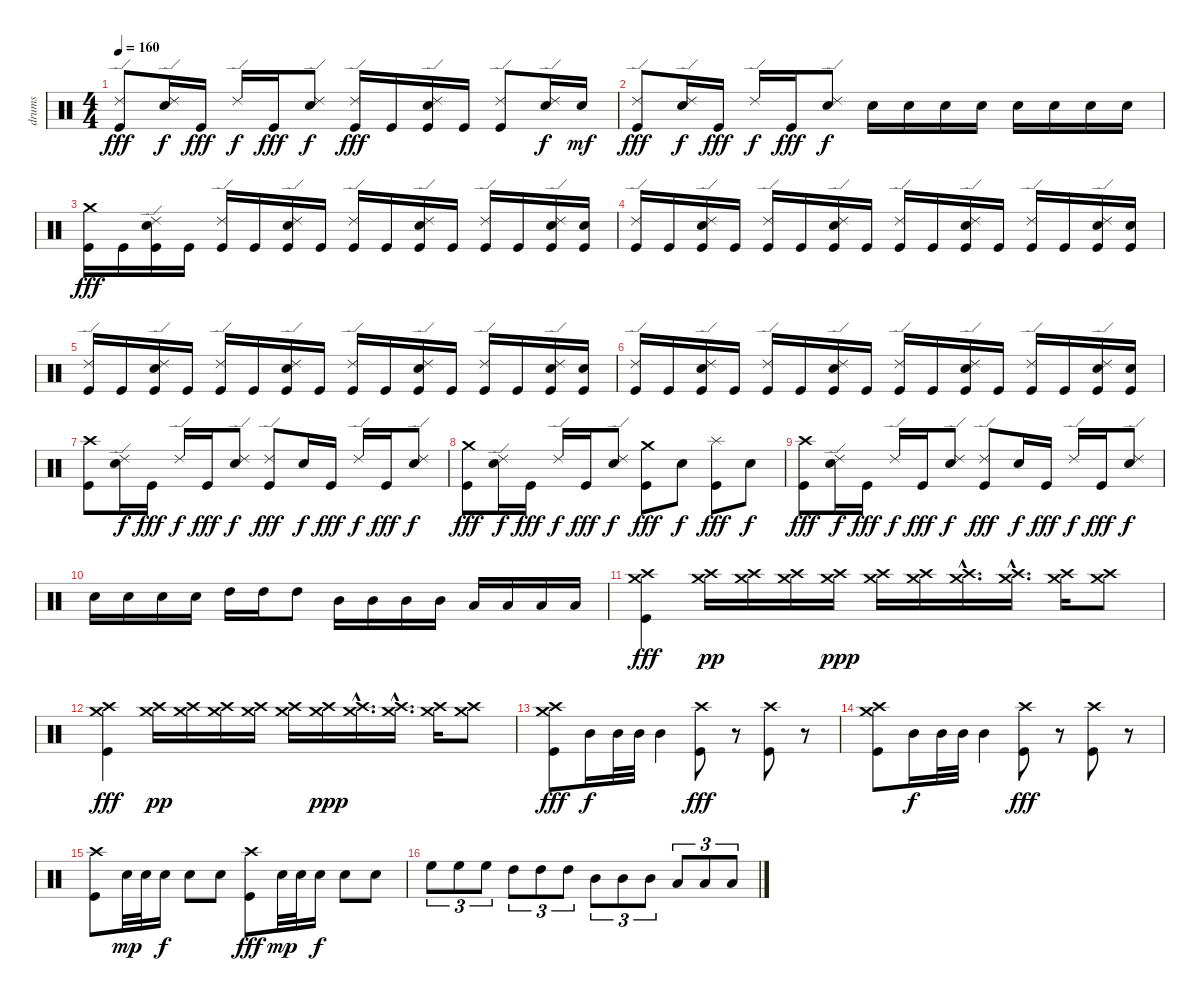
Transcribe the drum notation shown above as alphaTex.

\track ("drums" "drums") {instrument percussion}
\staff {score}
\articulation defaults
\ts (4 4)
\tempo 160
\clef neutral
\ks c
("Ride (edge) 2" "Kick (hit)").8{dy fff} ("Ride (edge) 2" "Snare (hit) 2").16{dy f} "Kick (hit)".16{dy fff} "Ride (edge) 2".16{dy f} "Kick (hit)".16{dy fff} ("Ride (edge) 2" "Snare (hit) 2").8{dy f} ("Ride (edge) 2" "Kick (hit)").16{dy fff} "Kick (hit)".16 ("Ride (edge) 2" "Snare (hit) 2" "Kick (hit)").16 "Kick (hit)".16 ("Ride (edge) 2" "Kick (hit)").8 ("Ride (edge) 2" "Snare (hit) 2").16{dy f} "Snare (hit) 2".16{dy mf} |
("Ride (edge) 2" "Kick (hit)").8{dy fff} ("Ride (edge) 2" "Snare (hit) 2").16{dy f} "Kick (hit)".16{dy fff} "Ride (edge) 2".16{dy f} "Kick (hit)".16{dy fff} ("Ride (edge) 2" "Snare (hit) 2").8{dy f} "Snare (hit) 2".16 "Snare (hit) 2".16 "Snare (hit) 2".16 "Snare (hit) 2".16 "Snare (hit) 2".16 "Snare (hit) 2".16 "Snare (hit) 2".16 "Snare (hit) 2".16 |
("Crash medium (hit)" "Kick (hit)").16{dy fff} "Kick (hit)".16 ("Ride (edge) 2" "Snare (hit) 2" "Kick (hit)").16 "Kick (hit)".16 ("Ride (edge) 2" "Kick (hit)").16 "Kick (hit)".16 ("Ride (edge) 2" "Snare (hit) 2" "Kick (hit)").16 "Kick (hit)".16 ("Ride (edge) 2" "Kick (hit)").16 "Kick (hit)".16 ("Ride (edge) 2" "Snare (hit) 2" "Kick (hit)").16 "Kick (hit)".16 ("Ride (edge) 2" "Kick (hit)").16 "Kick (hit)".16 ("Ride (edge) 2" "Snare (hit) 2" "Kick (hit)").16 ("Snare (hit) 2" "Kick (hit)").16 |
("Ride (edge) 2" "Kick (hit)").16 "Kick (hit)".16 ("Ride (edge) 2" "Snare (hit) 2" "Kick (hit)").16 "Kick (hit)".16 ("Ride (edge) 2" "Kick (hit)").16 "Kick (hit)".16 ("Ride (edge) 2" "Snare (hit) 2" "Kick (hit)").16 "Kick (hit)".16 ("Ride (edge) 2" "Kick (hit)").16 "Kick (hit)".16 ("Ride (edge) 2" "Snare (hit) 2" "Kick (hit)").16 "Kick (hit)".16 ("Ride (edge) 2" "Kick (hit)").16 "Kick (hit)".16 ("Ride (edge) 2" "Snare (hit) 2" "Kick (hit)").16 ("Snare (hit) 2" "Kick (hit)").16 |
("Ride (edge) 2" "Kick (hit)").16 "Kick (hit)".16 ("Ride (edge) 2" "Snare (hit) 2" "Kick (hit)").16 "Kick (hit)".16 ("Ride (edge) 2" "Kick (hit)").16 "Kick (hit)".16 ("Ride (edge) 2" "Snare (hit) 2" "Kick (hit)").16 "Kick (hit)".16 ("Ride (edge) 2" "Kick (hit)").16 "Kick (hit)".16 ("Ride (edge) 2" "Snare (hit) 2" "Kick (hit)").16 "Kick (hit)".16 ("Ride (edge) 2" "Kick (hit)").16 "Kick (hit)".16 ("Ride (edge) 2" "Snare (hit) 2" "Kick (hit)").16 ("Snare (hit) 2" "Kick (hit)").16 |
("Ride (edge) 2" "Kick (hit)").16 "Kick (hit)".16 ("Ride (edge) 2" "Snare (hit) 2" "Kick (hit)").16 "Kick (hit)".16 ("Ride (edge) 2" "Kick (hit)").16 "Kick (hit)".16 ("Ride (edge) 2" "Snare (hit) 2" "Kick (hit)").16 "Kick (hit)".16 ("Ride (edge) 2" "Kick (hit)").16 "Kick (hit)".16 ("Ride (edge) 2" "Snare (hit) 2" "Kick (hit)").16 "Kick (hit)".16 ("Ride (edge) 2" "Kick (hit)").16 "Kick (hit)".16 ("Ride (edge) 2" "Snare (hit) 2" "Kick (hit)").16 ("Kick (hit)" "Snare (hit)").16 |
("Crash high (hit)" "Kick (hit)").8 ("Ride (edge) 2" "Snare (hit) 2").16{dy f} "Kick (hit)".16{dy fff} "Ride (edge) 2".16{dy f} "Kick (hit)".16{dy fff} ("Ride (edge) 2" "Snare (hit) 2").8{dy f} ("Ride (edge) 2" "Kick (hit)").8{dy fff} "Snare (hit) 2".16{dy f} "Kick (hit)".16{dy fff} "Ride (edge) 2".16{dy f} "Kick (hit)".16{dy fff} ("Ride (edge) 2" "Snare (hit) 2").8{dy f} |
("Crash medium (hit)" "Kick (hit)").8{dy fff} ("Ride (edge) 2" "Snare (hit) 2").16{dy f} "Kick (hit)".16{dy fff} "Ride (edge) 2".16{dy f} "Kick (hit)".16{dy fff} ("Ride (edge) 2" "Snare (hit) 2").8{dy f} ("Crash medium (hit)" "Kick (hit)").8{dy fff} "Snare (hit) 2".8{dy f} ("Splash (hit)" "Kick (hit)").8{dy fff} "Snare (hit) 2".8{dy f} |
("Crash high (hit)" "Kick (hit)").8{dy fff} ("Ride (edge) 2" "Snare (hit) 2").16{dy f} "Kick (hit)".16{dy fff} "Ride (edge) 2".16{dy f} "Kick (hit)".16{dy fff} ("Ride (edge) 2" "Snare (hit) 2").8{dy f} ("Ride (edge) 2" "Kick (hit)").8{dy fff} "Snare (hit) 2".16{dy f} "Kick (hit)".16{dy fff} "Ride (edge) 2".16{dy f} "Kick (hit)".16{dy fff} ("Ride (edge) 2" "Snare (hit) 2").8{dy f} |
"Snare (hit) 2".16 "Snare (hit) 2".16 "Snare (hit) 2".16 "Snare (hit) 2".16 "High Tom (hit)".16 "High Tom (hit)".16 "High Tom (hit)".8 "Mid Tom (hit)".16 "Mid Tom (hit)".16 "Mid Tom (hit)".16 "Mid Tom (hit)".16 "Low Tom (hit)".16 "Low Tom (hit)".16 "Low Tom (hit)".16 "Low Tom (hit)".16 |
("Crash high (hit)" "Crash medium (hit)" "Kick (hit)").4{dy fff} ("Crash medium (hit)" "Crash high (hit)").16{dy pp} ("Crash medium (hit)" "Crash high (hit)").16 ("Crash medium (hit)" "Crash high (hit)").16 ("Crash medium (hit)" "Crash high (hit)").16{dy ppp} ("Crash medium (hit)" "Crash high (hit)").16 ("Crash medium (hit)" "Crash high (hit)").16 ("Crash medium (hit)"{hac} "Crash high (hit)"{hac}).16{d} ("Crash medium (hit)"{hac} "Crash high (hit)"{hac}).16{d} ("Crash medium (hit)" "Crash high (hit)").16 ("Crash medium (hit)" "Crash high (hit)").8 |
("Crash high (hit)" "Crash medium (hit)" "Kick (hit)").4{dy fff} ("Crash medium (hit)" "Crash high (hit)").16{dy pp} ("Crash medium (hit)" "Crash high (hit)").16 ("Crash medium (hit)" "Crash high (hit)").16 ("Crash medium (hit)" "Crash high (hit)").16 ("Crash medium (hit)" "Crash high (hit)").16 ("Crash medium (hit)" "Crash high (hit)").16{dy ppp} ("Crash medium (hit)"{hac} "Crash high (hit)"{hac}).16{d} ("Crash medium (hit)"{hac} "Crash high (hit)"{hac}).16{d} ("Crash medium (hit)" "Crash high (hit)").16 ("Crash medium (hit)" "Crash high (hit)").8 |
("Crash medium (hit)" "Crash high (hit)" "Kick (hit)").8{dy fff} "Mid Tom (hit)".16{dy f} "Mid Tom (hit)".32 "Mid Tom (hit)".32 "Mid Tom (hit)".4 ("Crash high (hit)" "Kick (hit)").8{dy fff} r.8{volume 0} ("Crash high (hit)" "Kick (hit)").8{volume 12} r.8{volume 0} |
("Crash medium (hit)" "Crash high (hit)" "Kick (hit)").8{volume 12} "Mid Tom (hit)".16{dy f} "Mid Tom (hit)".32 "Mid Tom (hit)".32 "Mid Tom (hit)".4 ("Crash high (hit)" "Kick (hit)").8{dy fff} r.8{volume 0} ("Crash high (hit)" "Kick (hit)").8{volume 12} r.8{volume 0} |
("Crash high (hit)" "Kick (hit)").8{volume 12} "Snare (hit) 2".32{dy mp} "Snare (hit) 2".32 "Snare (hit) 2".16{dy f} "Snare (hit) 2".8 "Snare (hit) 2".8 ("Crash high (hit)" "Kick (hit)").8{dy fff} "Snare (hit) 2".32{dy mp} "Snare (hit) 2".32 "Snare (hit) 2".16{dy f} "Snare (hit) 2".8 "Snare (hit) 2".8 |
"High Floor Tom (hit)".8{tu (3 2)} "High Floor Tom (hit)".8{tu (3 2)} "High Floor Tom (hit)".8{tu (3 2)} "High Tom (hit)".8{tu (3 2)} "High Tom (hit)".8{tu (3 2)} "High Tom (hit)".8{tu (3 2)} "Mid Tom (hit)".8{tu (3 2)} "Mid Tom (hit)".8{tu (3 2)} "Mid Tom (hit)".8{tu (3 2)} "Low Tom (hit)".8{tu (3 2)} "Low Tom (hit)".8{tu (3 2)} "Low Tom (hit)".8{tu (3 2)}
